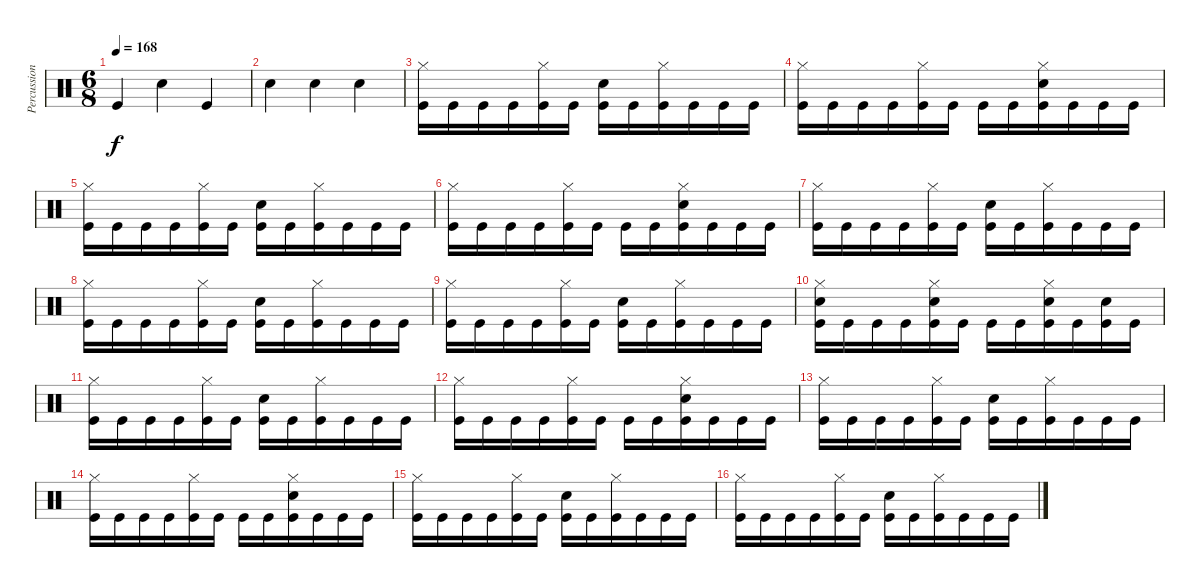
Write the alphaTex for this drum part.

\track ("Percussion" "Percussion") {instrument percussion}
\staff {score}
\articulation defaults
\ts (6 8)
\tempo 168
\clef neutral
\ks c "Kick (hit)".4{dy f} "Snare (hit) 2".4 "Kick (hit)".4
|
"Snare (hit) 2".4 "Snare (hit) 2".4 "Snare (hit) 2".4 |
("Hi-Hat (closed)" "Kick (hit)").16 "Kick (hit)".16 "Kick (hit)".16 "Kick (hit)".16 ("Hi-Hat (closed)" "Kick (hit)").16 "Kick (hit)".16 ("Snare (hit) 2" "Kick (hit)").16 "Kick (hit)".16 ("Hi-Hat (closed)" "Kick (hit)").16 "Kick (hit)".16 "Kick (hit)".16 "Kick (hit)".16 |
("Hi-Hat (closed)" "Kick (hit)").16 "Kick (hit)".16 "Kick (hit)".16 "Kick (hit)".16 ("Hi-Hat (closed)" "Kick (hit)").16 "Kick (hit)".16 "Kick (hit)".16 "Kick (hit)".16 ("Hi-Hat (closed)" "Snare (hit) 2" "Kick (hit)").16 "Kick (hit)".16 "Kick (hit)".16 "Kick (hit)".16 |
("Hi-Hat (closed)" "Kick (hit)").16 "Kick (hit)".16 "Kick (hit)".16 "Kick (hit)".16 ("Hi-Hat (closed)" "Kick (hit)").16 "Kick (hit)".16 ("Snare (hit) 2" "Kick (hit)").16 "Kick (hit)".16 ("Hi-Hat (closed)" "Kick (hit)").16 "Kick (hit)".16 "Kick (hit)".16 "Kick (hit)".16 |
("Hi-Hat (closed)" "Kick (hit)").16 "Kick (hit)".16 "Kick (hit)".16 "Kick (hit)".16 ("Hi-Hat (closed)" "Kick (hit)").16 "Kick (hit)".16 "Kick (hit)".16 "Kick (hit)".16 ("Hi-Hat (closed)" "Snare (hit) 2" "Kick (hit)").16 "Kick (hit)".16 "Kick (hit)".16 "Kick (hit)".16 |
("Hi-Hat (closed)" "Kick (hit)").16 "Kick (hit)".16 "Kick (hit)".16 "Kick (hit)".16 ("Hi-Hat (closed)" "Kick (hit)").16 "Kick (hit)".16 ("Snare (hit) 2" "Kick (hit)").16 "Kick (hit)".16 ("Hi-Hat (closed)" "Kick (hit)").16 "Kick (hit)".16 "Kick (hit)".16 "Kick (hit)".16 |
("Hi-Hat (closed)" "Kick (hit)").16 "Kick (hit)".16 "Kick (hit)".16 "Kick (hit)".16 ("Hi-Hat (closed)" "Kick (hit)").16 "Kick (hit)".16 ("Snare (hit) 2" "Kick (hit)").16 "Kick (hit)".16 ("Hi-Hat (closed)" "Kick (hit)").16 "Kick (hit)".16 "Kick (hit)".16 "Kick (hit)".16 |
("Hi-Hat (closed)" "Kick (hit)").16 "Kick (hit)".16 "Kick (hit)".16 "Kick (hit)".16 ("Hi-Hat (closed)" "Kick (hit)").16 "Kick (hit)".16 ("Snare (hit) 2" "Kick (hit)").16 "Kick (hit)".16 ("Hi-Hat (closed)" "Kick (hit)").16 "Kick (hit)".16 "Kick (hit)".16 "Kick (hit)".16 |
("Hi-Hat (closed)" "Snare (hit) 2" "Kick (hit)").16 "Kick (hit)".16 "Kick (hit)".16 "Kick (hit)".16 ("Hi-Hat (closed)" "Snare (hit) 2" "Kick (hit)").16 "Kick (hit)".16 "Kick (hit)".16 "Kick (hit)".16 ("Hi-Hat (closed)" "Snare (hit) 2" "Kick (hit)").16 "Kick (hit)".16 ("Snare (hit) 2" "Kick (hit)").16 "Kick (hit)".16 |
("Hi-Hat (closed)" "Kick (hit)").16 "Kick (hit)".16 "Kick (hit)".16 "Kick (hit)".16 ("Hi-Hat (closed)" "Kick (hit)").16 "Kick (hit)".16 ("Snare (hit) 2" "Kick (hit)").16 "Kick (hit)".16 ("Hi-Hat (closed)" "Kick (hit)").16 "Kick (hit)".16 "Kick (hit)".16 "Kick (hit)".16 |
("Hi-Hat (closed)" "Kick (hit)").16 "Kick (hit)".16 "Kick (hit)".16 "Kick (hit)".16 ("Hi-Hat (closed)" "Kick (hit)").16 "Kick (hit)".16 "Kick (hit)".16 "Kick (hit)".16 ("Hi-Hat (closed)" "Snare (hit) 2" "Kick (hit)").16 "Kick (hit)".16 "Kick (hit)".16 "Kick (hit)".16 |
("Hi-Hat (closed)" "Kick (hit)").16 "Kick (hit)".16 "Kick (hit)".16 "Kick (hit)".16 ("Hi-Hat (closed)" "Kick (hit)").16 "Kick (hit)".16 ("Snare (hit) 2" "Kick (hit)").16 "Kick (hit)".16 ("Hi-Hat (closed)" "Kick (hit)").16 "Kick (hit)".16 "Kick (hit)".16 "Kick (hit)".16 |
("Hi-Hat (closed)" "Kick (hit)").16 "Kick (hit)".16 "Kick (hit)".16 "Kick (hit)".16 ("Hi-Hat (closed)" "Kick (hit)").16 "Kick (hit)".16 "Kick (hit)".16 "Kick (hit)".16 ("Hi-Hat (closed)" "Snare (hit) 2" "Kick (hit)").16 "Kick (hit)".16 "Kick (hit)".16 "Kick (hit)".16 |
("Hi-Hat (closed)" "Kick (hit)").16 "Kick (hit)".16 "Kick (hit)".16 "Kick (hit)".16 ("Hi-Hat (closed)" "Kick (hit)").16 "Kick (hit)".16 ("Snare (hit) 2" "Kick (hit)").16 "Kick (hit)".16 ("Hi-Hat (closed)" "Kick (hit)").16 "Kick (hit)".16 "Kick (hit)".16 "Kick (hit)".16 |
("Hi-Hat (closed)" "Kick (hit)").16 "Kick (hit)".16 "Kick (hit)".16 "Kick (hit)".16 ("Hi-Hat (closed)" "Kick (hit)").16 "Kick (hit)".16 ("Snare (hit) 2" "Kick (hit)").16 "Kick (hit)".16 ("Hi-Hat (closed)" "Kick (hit)").16 "Kick (hit)".16 "Kick (hit)".16 "Kick (hit)".16
